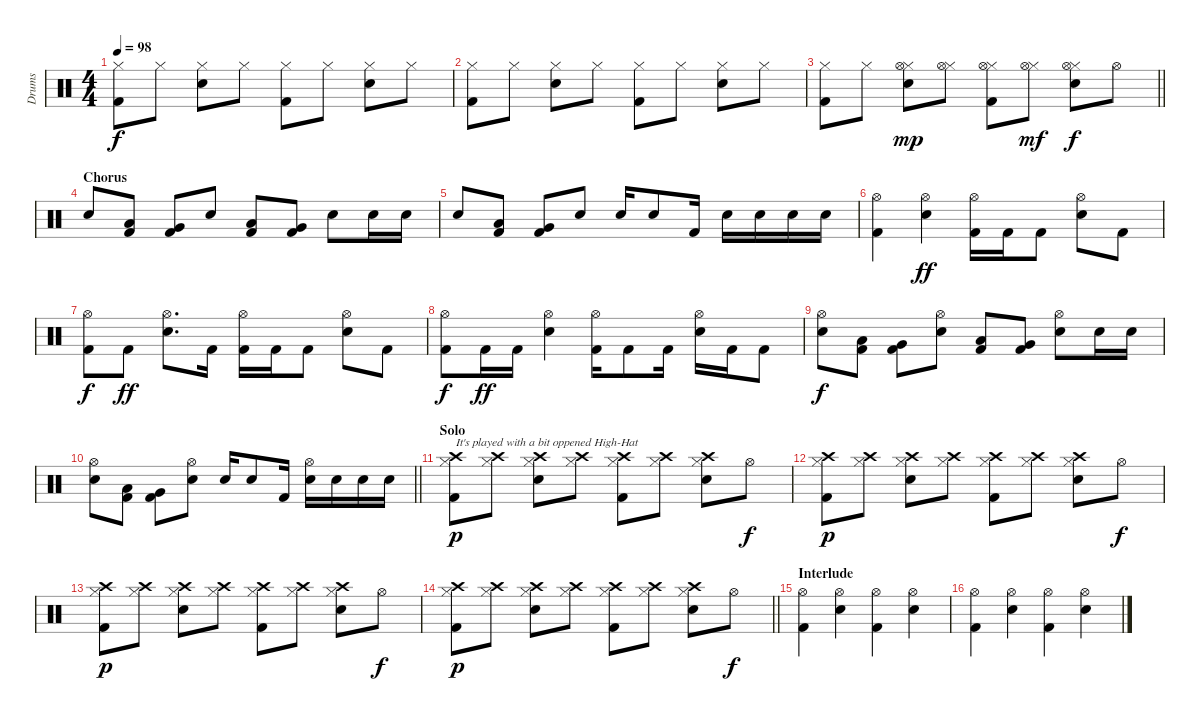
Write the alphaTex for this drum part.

\track ("Drums" "Drums") {instrument percussion}
\staff {score}
\articulation defaults
\ts (4 4)
\tempo 98
\clef neutral
\ks c
("Hi-Hat (closed)" "Kick (hit) 2").8{dy f} "Hi-Hat (closed)".8 ("Hi-Hat (closed)" "Snare (hit) 2").8 "Hi-Hat (closed)".8 ("Hi-Hat (closed)" "Kick (hit) 2").8 "Hi-Hat (closed)".8 ("Hi-Hat (closed)" "Snare (hit) 2").8 "Hi-Hat (closed)".8 |
("Hi-Hat (closed)" "Kick (hit) 2").8 "Hi-Hat (closed)".8 ("Hi-Hat (closed)" "Snare (hit) 2").8 "Hi-Hat (closed)".8 ("Hi-Hat (closed)" "Kick (hit) 2").8 "Hi-Hat (closed)".8 ("Hi-Hat (closed)" "Snare (hit) 2").8 "Hi-Hat (closed)".8 |
\barLineRight lightlight
("Hi-Hat (closed)" "Kick (hit) 2").8 "Hi-Hat (closed)".8 ("Hi-Hat (closed)" "Hi-Hat (open)" "Snare (hit) 2").8{dy mp} ("Hi-Hat (closed)" "Hi-Hat (open)").8 ("Hi-Hat (closed)" "Hi-Hat (open)" "Kick (hit) 2").8 ("Hi-Hat (closed)" "Hi-Hat (open)").8{dy mf} ("Hi-Hat (closed)" "Hi-Hat (open)" "Snare (hit) 2").8{dy f} "Hi-Hat (open)".8 |
\section ("" "Chorus")
"Snare (hit) 2".8 ("Low Tom (hit)" "Kick (hit) 2").8 ("Very Low Tom (hit)" "Kick (hit) 2").8 "Snare (hit) 2".8 ("Low Tom (hit)" "Kick (hit) 2").8 ("Very Low Tom (hit)" "Kick (hit) 2").8 "Snare (hit) 2".8 "Snare (hit) 2".16 "Snare (hit) 2".16 |
"Snare (hit) 2".8 ("Low Tom (hit)" "Kick (hit) 2").8 ("Very Low Tom (hit)" "Kick (hit) 2").8 "Snare (hit) 2".8 "Snare (hit) 2".16 "Snare (hit) 2".8 "Kick (hit) 2".16 "Snare (hit) 2".16 "Snare (hit) 2".16 "Snare (hit) 2".16 "Snare (hit) 2".16 |
("Hi-Hat (open)" "Kick (hit) 2").4 ("Hi-Hat (open)" "Snare (hit) 2").4{dy ff} ("Hi-Hat (open)" "Kick (hit) 2").16 "Kick (hit) 2".16 "Kick (hit) 2".8 ("Hi-Hat (open)" "Snare (hit) 2").8 "Kick (hit) 2".8 |
("Hi-Hat (open)" "Kick (hit) 2").8{dy f} "Kick (hit) 2".8{dy ff} ("Hi-Hat (open)" "Snare (hit) 2").8{d} "Kick (hit) 2".16 ("Hi-Hat (open)" "Kick (hit) 2").16 "Kick (hit) 2".16 "Kick (hit) 2".8 ("Hi-Hat (open)" "Snare (hit) 2").8 "Kick (hit) 2".8 |
("Hi-Hat (open)" "Kick (hit) 2").8{dy f} "Kick (hit) 2".16{dy ff} "Kick (hit) 2".16 ("Hi-Hat (open)" "Snare (hit) 2").4 ("Hi-Hat (open)" "Kick (hit) 2").16 "Kick (hit) 2".8 "Kick (hit) 2".16 ("Hi-Hat (open)" "Snare (hit) 2").16 "Kick (hit) 2".16 "Kick (hit) 2".8 |
("Hi-Hat (open)" "Snare (hit) 2").8{dy f} ("Low Tom (hit)" "Kick (hit) 2").8 ("Very Low Tom (hit)" "Kick (hit) 2").8 ("Hi-Hat (open)" "Snare (hit) 2").8 ("Low Tom (hit)" "Kick (hit) 2").8 ("Very Low Tom (hit)" "Kick (hit) 2").8 ("Hi-Hat (open)" "Snare (hit) 2").8 "Snare (hit) 2".16 "Snare (hit) 2".16 |
\barLineRight lightlight
("Hi-Hat (open)" "Snare (hit) 2").8 ("Low Tom (hit)" "Kick (hit) 2").8 ("Very Low Tom (hit)" "Kick (hit) 2").8 ("Hi-Hat (open)" "Snare (hit) 2").8 "Snare (hit) 2".16 "Snare (hit) 2".8 "Kick (hit) 2".16 ("Hi-Hat (open)" "Snare (hit) 2").16 "Snare (hit) 2".16 "Snare (hit) 2".16 "Snare (hit) 2".16 |
\section ("" "Solo")
("Hi-Hat (closed)" "Crash high (hit)" "Kick (hit) 2").8{txt "It's played with a bit oppened High-Hat" dy p} ("Hi-Hat (closed)" "Crash high (hit)").8 ("Hi-Hat (closed)" "Crash high (hit)" "Snare (hit) 2").8 ("Hi-Hat (closed)" "Crash high (hit)").8 ("Hi-Hat (closed)" "Crash high (hit)" "Kick (hit) 2").8 ("Hi-Hat (closed)" "Crash high (hit)").8 ("Hi-Hat (closed)" "Crash high (hit)" "Snare (hit) 2").8 "Hi-Hat (open)".8{dy f} |
("Hi-Hat (closed)" "Crash high (hit)" "Kick (hit) 2").8{dy p} ("Hi-Hat (closed)" "Crash high (hit)").8 ("Hi-Hat (closed)" "Crash high (hit)" "Snare (hit) 2").8 ("Hi-Hat (closed)" "Crash high (hit)").8 ("Hi-Hat (closed)" "Crash high (hit)" "Kick (hit) 2").8 ("Hi-Hat (closed)" "Crash high (hit)").8 ("Hi-Hat (closed)" "Crash high (hit)" "Snare (hit) 2").8 "Hi-Hat (open)".8{dy f} |
("Hi-Hat (closed)" "Crash high (hit)" "Kick (hit) 2").8{dy p} ("Hi-Hat (closed)" "Crash high (hit)").8 ("Hi-Hat (closed)" "Crash high (hit)" "Snare (hit) 2").8 ("Hi-Hat (closed)" "Crash high (hit)").8 ("Hi-Hat (closed)" "Crash high (hit)" "Kick (hit) 2").8 ("Hi-Hat (closed)" "Crash high (hit)").8 ("Hi-Hat (closed)" "Crash high (hit)" "Snare (hit) 2").8 "Hi-Hat (open)".8{dy f} |
\barLineRight lightlight
("Hi-Hat (closed)" "Crash high (hit)" "Kick (hit) 2").8{dy p} ("Hi-Hat (closed)" "Crash high (hit)").8 ("Hi-Hat (closed)" "Crash high (hit)" "Snare (hit) 2").8 ("Hi-Hat (closed)" "Crash high (hit)").8 ("Hi-Hat (closed)" "Crash high (hit)" "Kick (hit) 2").8 ("Hi-Hat (closed)" "Crash high (hit)").8 ("Hi-Hat (closed)" "Crash high (hit)" "Snare (hit) 2").8 "Hi-Hat (open)".8{dy f} |
\section ("" "Interlude")
("Hi-Hat (open)" "Kick (hit) 2").4 ("Hi-Hat (open)" "Snare (hit) 2").4 ("Hi-Hat (open)" "Kick (hit) 2").4 ("Hi-Hat (open)" "Snare (hit) 2").4 |
("Hi-Hat (open)" "Kick (hit) 2").4 ("Hi-Hat (open)" "Snare (hit) 2").4 ("Hi-Hat (open)" "Kick (hit) 2").4 ("Hi-Hat (open)" "Snare (hit) 2").4
